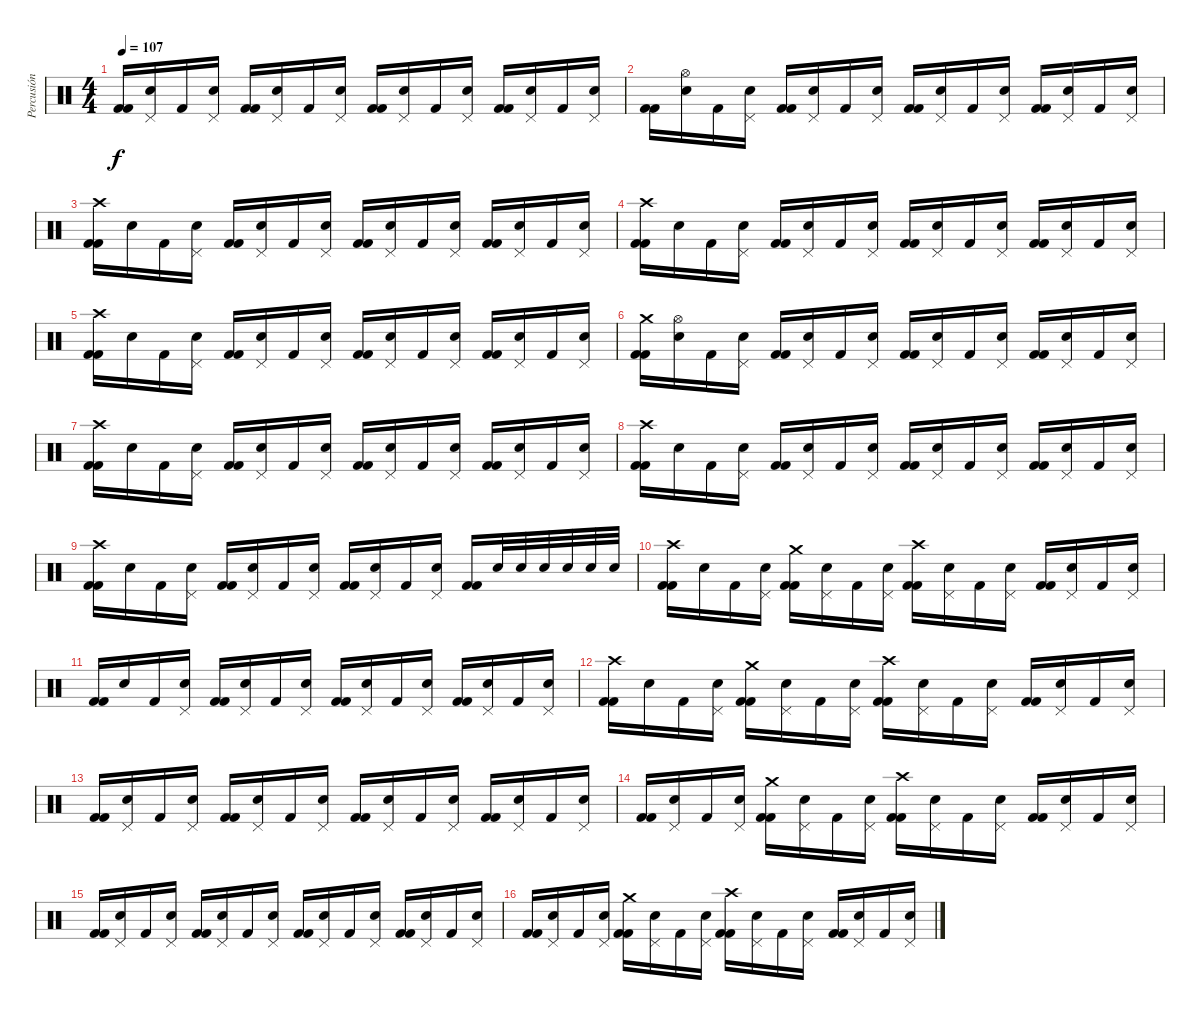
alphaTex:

\track ("Percusión" "Percusión") {instrument percussion}
\staff {score}
\articulation defaults
\ts (4 4)
\tempo 107
\clef neutral
\ks c
("Kick (hit) 2" "Kick (hit) 2").16{dy f} ("Electric Snare (hit)" "Pedal Hi-Hat (hit)").16 "Kick (hit) 2".16 ("Electric Snare (hit)" "Pedal Hi-Hat (hit)").16 ("Kick (hit) 2" "Kick (hit) 2").16 ("Electric Snare (hit)" "Pedal Hi-Hat (hit)").16 "Kick (hit) 2".16 ("Electric Snare (hit)" "Pedal Hi-Hat (hit)").16 ("Kick (hit) 2" "Kick (hit) 2").16 ("Electric Snare (hit)" "Pedal Hi-Hat (hit)").16 "Kick (hit) 2".16 ("Electric Snare (hit)" "Pedal Hi-Hat (hit)").16 ("Kick (hit) 2" "Kick (hit) 2").16 ("Electric Snare (hit)" "Pedal Hi-Hat (hit)").16 "Kick (hit) 2".16 ("Electric Snare (hit)" "Pedal Hi-Hat (hit)").16 |
("Kick (hit) 2" "Kick (hit) 2").16 ("Electric Snare (hit)" "Hi-Hat (open)").16 "Kick (hit) 2".16 ("Electric Snare (hit)" "Pedal Hi-Hat (hit)").16 ("Kick (hit) 2" "Kick (hit) 2").16 ("Electric Snare (hit)" "Pedal Hi-Hat (hit)").16 "Kick (hit) 2".16 ("Electric Snare (hit)" "Pedal Hi-Hat (hit)").16 ("Kick (hit) 2" "Kick (hit) 2").16 ("Electric Snare (hit)" "Pedal Hi-Hat (hit)").16 "Kick (hit) 2".16 ("Electric Snare (hit)" "Pedal Hi-Hat (hit)").16 ("Kick (hit) 2" "Kick (hit) 2").16 ("Electric Snare (hit)" "Pedal Hi-Hat (hit)").16 "Kick (hit) 2".16 ("Electric Snare (hit)" "Pedal Hi-Hat (hit)").16 |
("Kick (hit) 2" "Kick (hit) 2" "Crash high (hit)").16 "Electric Snare (hit)".16 "Kick (hit) 2".16 ("Electric Snare (hit)" "Pedal Hi-Hat (hit)").16 ("Kick (hit) 2" "Kick (hit) 2").16 ("Electric Snare (hit)" "Pedal Hi-Hat (hit)").16 "Kick (hit) 2".16 ("Electric Snare (hit)" "Pedal Hi-Hat (hit)").16 ("Kick (hit) 2" "Kick (hit) 2").16 ("Electric Snare (hit)" "Pedal Hi-Hat (hit)").16 "Kick (hit) 2".16 ("Electric Snare (hit)" "Pedal Hi-Hat (hit)").16 ("Kick (hit) 2" "Kick (hit) 2").16 ("Electric Snare (hit)" "Pedal Hi-Hat (hit)").16 "Kick (hit) 2".16 ("Electric Snare (hit)" "Pedal Hi-Hat (hit)").16 |
("Kick (hit) 2" "Kick (hit) 2" "Crash high (hit)").16 "Electric Snare (hit)".16 "Kick (hit) 2".16 ("Electric Snare (hit)" "Pedal Hi-Hat (hit)").16 ("Kick (hit) 2" "Kick (hit) 2").16 ("Electric Snare (hit)" "Pedal Hi-Hat (hit)").16 "Kick (hit) 2".16 ("Electric Snare (hit)" "Pedal Hi-Hat (hit)").16 ("Kick (hit) 2" "Kick (hit) 2").16 ("Electric Snare (hit)" "Pedal Hi-Hat (hit)").16 "Kick (hit) 2".16 ("Electric Snare (hit)" "Pedal Hi-Hat (hit)").16 ("Kick (hit) 2" "Kick (hit) 2").16 ("Electric Snare (hit)" "Pedal Hi-Hat (hit)").16 "Kick (hit) 2".16 ("Electric Snare (hit)" "Pedal Hi-Hat (hit)").16 |
("Kick (hit) 2" "Kick (hit) 2" "Crash high (hit)").16 "Electric Snare (hit)".16 "Kick (hit) 2".16 ("Electric Snare (hit)" "Pedal Hi-Hat (hit)").16 ("Kick (hit) 2" "Kick (hit) 2").16 ("Electric Snare (hit)" "Pedal Hi-Hat (hit)").16 "Kick (hit) 2".16 ("Electric Snare (hit)" "Pedal Hi-Hat (hit)").16 ("Kick (hit) 2" "Kick (hit) 2").16 ("Electric Snare (hit)" "Pedal Hi-Hat (hit)").16 "Kick (hit) 2".16 ("Electric Snare (hit)" "Pedal Hi-Hat (hit)").16 ("Kick (hit) 2" "Kick (hit) 2").16 ("Electric Snare (hit)" "Pedal Hi-Hat (hit)").16 "Kick (hit) 2".16 ("Electric Snare (hit)" "Pedal Hi-Hat (hit)").16 |
("Kick (hit) 2" "Kick (hit) 2" "Crash medium (hit)").16 ("Electric Snare (hit)" "Hi-Hat (open)").16 "Kick (hit) 2".16 ("Electric Snare (hit)" "Pedal Hi-Hat (hit)").16 ("Kick (hit) 2" "Kick (hit) 2").16 ("Electric Snare (hit)" "Pedal Hi-Hat (hit)").16 "Kick (hit) 2".16 ("Electric Snare (hit)" "Pedal Hi-Hat (hit)").16 ("Kick (hit) 2" "Kick (hit) 2").16 ("Electric Snare (hit)" "Pedal Hi-Hat (hit)").16 "Kick (hit) 2".16 ("Electric Snare (hit)" "Pedal Hi-Hat (hit)").16 ("Kick (hit) 2" "Kick (hit) 2").16 ("Electric Snare (hit)" "Pedal Hi-Hat (hit)").16 "Kick (hit) 2".16 ("Electric Snare (hit)" "Pedal Hi-Hat (hit)").16 |
("Kick (hit) 2" "Kick (hit) 2" "Crash high (hit)").16 "Electric Snare (hit)".16 "Kick (hit) 2".16 ("Electric Snare (hit)" "Pedal Hi-Hat (hit)").16 ("Kick (hit) 2" "Kick (hit) 2").16 ("Electric Snare (hit)" "Pedal Hi-Hat (hit)").16 "Kick (hit) 2".16 ("Electric Snare (hit)" "Pedal Hi-Hat (hit)").16 ("Kick (hit) 2" "Kick (hit) 2").16 ("Electric Snare (hit)" "Pedal Hi-Hat (hit)").16 "Kick (hit) 2".16 ("Electric Snare (hit)" "Pedal Hi-Hat (hit)").16 ("Kick (hit) 2" "Kick (hit) 2").16 ("Electric Snare (hit)" "Pedal Hi-Hat (hit)").16 "Kick (hit) 2".16 ("Electric Snare (hit)" "Pedal Hi-Hat (hit)").16 |
("Kick (hit) 2" "Kick (hit) 2" "Crash high (hit)").16 "Electric Snare (hit)".16 "Kick (hit) 2".16 ("Electric Snare (hit)" "Pedal Hi-Hat (hit)").16 ("Kick (hit) 2" "Kick (hit) 2").16 ("Electric Snare (hit)" "Pedal Hi-Hat (hit)").16 "Kick (hit) 2".16 ("Electric Snare (hit)" "Pedal Hi-Hat (hit)").16 ("Kick (hit) 2" "Kick (hit) 2").16 ("Electric Snare (hit)" "Pedal Hi-Hat (hit)").16 "Kick (hit) 2".16 ("Electric Snare (hit)" "Pedal Hi-Hat (hit)").16 ("Kick (hit) 2" "Kick (hit) 2").16 ("Electric Snare (hit)" "Pedal Hi-Hat (hit)").16 "Kick (hit) 2".16 ("Electric Snare (hit)" "Pedal Hi-Hat (hit)").16 |
("Kick (hit) 2" "Kick (hit) 2" "Crash high (hit)").16 "Electric Snare (hit)".16 "Kick (hit) 2".16 ("Electric Snare (hit)" "Pedal Hi-Hat (hit)").16 ("Kick (hit) 2" "Kick (hit) 2").16 ("Electric Snare (hit)" "Pedal Hi-Hat (hit)").16 "Kick (hit) 2".16 ("Electric Snare (hit)" "Pedal Hi-Hat (hit)").16 ("Kick (hit) 2" "Kick (hit) 2").16 ("Electric Snare (hit)" "Pedal Hi-Hat (hit)").16 "Kick (hit) 2".16 ("Electric Snare (hit)" "Pedal Hi-Hat (hit)").16 ("Kick (hit) 2" "Kick (hit) 2").16 "Electric Snare (hit)".32 "Electric Snare (hit)".32 "Electric Snare (hit)".32 "Electric Snare (hit)".32 "Electric Snare (hit)".32 "Electric Snare (hit)".32 |
("Kick (hit) 2" "Kick (hit) 2" "Crash high (hit)").16 "Electric Snare (hit)".16 "Kick (hit) 2".16 ("Electric Snare (hit)" "Pedal Hi-Hat (hit)").16 ("Kick (hit) 2" "Kick (hit) 2" "Crash medium (hit)").16 ("Electric Snare (hit)" "Pedal Hi-Hat (hit)").16 "Kick (hit) 2".16 ("Electric Snare (hit)" "Pedal Hi-Hat (hit)").16 ("Kick (hit) 2" "Kick (hit) 2" "Crash high (hit)").16 ("Electric Snare (hit)" "Pedal Hi-Hat (hit)").16 "Kick (hit) 2".16 ("Electric Snare (hit)" "Pedal Hi-Hat (hit)").16 ("Kick (hit) 2" "Kick (hit) 2").16 ("Electric Snare (hit)" "Pedal Hi-Hat (hit)").16 "Kick (hit) 2".16 ("Electric Snare (hit)" "Pedal Hi-Hat (hit)").16 |
("Kick (hit) 2" "Kick (hit) 2").16 "Electric Snare (hit)".16 "Kick (hit) 2".16 ("Electric Snare (hit)" "Pedal Hi-Hat (hit)").16 ("Kick (hit) 2" "Kick (hit) 2").16 ("Electric Snare (hit)" "Pedal Hi-Hat (hit)").16 "Kick (hit) 2".16 ("Electric Snare (hit)" "Pedal Hi-Hat (hit)").16 ("Kick (hit) 2" "Kick (hit) 2").16 ("Electric Snare (hit)" "Pedal Hi-Hat (hit)").16 "Kick (hit) 2".16 ("Electric Snare (hit)" "Pedal Hi-Hat (hit)").16 ("Kick (hit) 2" "Kick (hit) 2").16 ("Electric Snare (hit)" "Pedal Hi-Hat (hit)").16 "Kick (hit) 2".16 ("Electric Snare (hit)" "Pedal Hi-Hat (hit)").16 |
("Kick (hit) 2" "Kick (hit) 2" "Crash high (hit)").16 "Electric Snare (hit)".16 "Kick (hit) 2".16 ("Electric Snare (hit)" "Pedal Hi-Hat (hit)").16 ("Kick (hit) 2" "Kick (hit) 2" "Crash medium (hit)").16 ("Electric Snare (hit)" "Pedal Hi-Hat (hit)").16 "Kick (hit) 2".16 ("Electric Snare (hit)" "Pedal Hi-Hat (hit)").16 ("Kick (hit) 2" "Kick (hit) 2" "Crash high (hit)").16 ("Electric Snare (hit)" "Pedal Hi-Hat (hit)").16 "Kick (hit) 2".16 ("Electric Snare (hit)" "Pedal Hi-Hat (hit)").16 ("Kick (hit) 2" "Kick (hit) 2").16 ("Electric Snare (hit)" "Pedal Hi-Hat (hit)").16 "Kick (hit) 2".16 ("Electric Snare (hit)" "Pedal Hi-Hat (hit)").16 |
("Kick (hit) 2" "Kick (hit) 2").16 ("Electric Snare (hit)" "Pedal Hi-Hat (hit)").16 "Kick (hit) 2".16 ("Electric Snare (hit)" "Pedal Hi-Hat (hit)").16 ("Kick (hit) 2" "Kick (hit) 2").16 ("Electric Snare (hit)" "Pedal Hi-Hat (hit)").16 "Kick (hit) 2".16 ("Electric Snare (hit)" "Pedal Hi-Hat (hit)").16 ("Kick (hit) 2" "Kick (hit) 2").16 ("Electric Snare (hit)" "Pedal Hi-Hat (hit)").16 "Kick (hit) 2".16 ("Electric Snare (hit)" "Pedal Hi-Hat (hit)").16 ("Kick (hit) 2" "Kick (hit) 2").16 ("Electric Snare (hit)" "Pedal Hi-Hat (hit)").16 "Kick (hit) 2".16 ("Electric Snare (hit)" "Pedal Hi-Hat (hit)").16 |
("Kick (hit) 2" "Kick (hit) 2").16 ("Electric Snare (hit)" "Pedal Hi-Hat (hit)").16 "Kick (hit) 2".16 ("Electric Snare (hit)" "Pedal Hi-Hat (hit)").16 ("Kick (hit) 2" "Kick (hit) 2" "Crash medium (hit)").16 ("Electric Snare (hit)" "Pedal Hi-Hat (hit)").16 "Kick (hit) 2".16 ("Electric Snare (hit)" "Pedal Hi-Hat (hit)").16 ("Kick (hit) 2" "Kick (hit) 2" "Crash high (hit)").16 ("Electric Snare (hit)" "Pedal Hi-Hat (hit)").16 "Kick (hit) 2".16 ("Electric Snare (hit)" "Pedal Hi-Hat (hit)").16 ("Kick (hit) 2" "Kick (hit) 2").16 ("Electric Snare (hit)" "Pedal Hi-Hat (hit)").16 "Kick (hit) 2".16 ("Electric Snare (hit)" "Pedal Hi-Hat (hit)").16 |
("Kick (hit) 2" "Kick (hit) 2").16 ("Electric Snare (hit)" "Pedal Hi-Hat (hit)").16 "Kick (hit) 2".16 ("Electric Snare (hit)" "Pedal Hi-Hat (hit)").16 ("Kick (hit) 2" "Kick (hit) 2").16 ("Electric Snare (hit)" "Pedal Hi-Hat (hit)").16 "Kick (hit) 2".16 ("Electric Snare (hit)" "Pedal Hi-Hat (hit)").16 ("Kick (hit) 2" "Kick (hit) 2").16 ("Electric Snare (hit)" "Pedal Hi-Hat (hit)").16 "Kick (hit) 2".16 ("Electric Snare (hit)" "Pedal Hi-Hat (hit)").16 ("Kick (hit) 2" "Kick (hit) 2").16 ("Electric Snare (hit)" "Pedal Hi-Hat (hit)").16 "Kick (hit) 2".16 ("Electric Snare (hit)" "Pedal Hi-Hat (hit)").16 |
("Kick (hit) 2" "Kick (hit) 2").16 ("Electric Snare (hit)" "Pedal Hi-Hat (hit)").16 "Kick (hit) 2".16 ("Electric Snare (hit)" "Pedal Hi-Hat (hit)").16 ("Kick (hit) 2" "Kick (hit) 2" "Crash medium (hit)").16 ("Electric Snare (hit)" "Pedal Hi-Hat (hit)").16 "Kick (hit) 2".16 ("Electric Snare (hit)" "Pedal Hi-Hat (hit)").16 ("Kick (hit) 2" "Kick (hit) 2" "Crash high (hit)").16 ("Electric Snare (hit)" "Pedal Hi-Hat (hit)").16 "Kick (hit) 2".16 ("Electric Snare (hit)" "Pedal Hi-Hat (hit)").16 ("Kick (hit) 2" "Kick (hit) 2").16 ("Electric Snare (hit)" "Pedal Hi-Hat (hit)").16 "Kick (hit) 2".16 ("Electric Snare (hit)" "Pedal Hi-Hat (hit)").16
